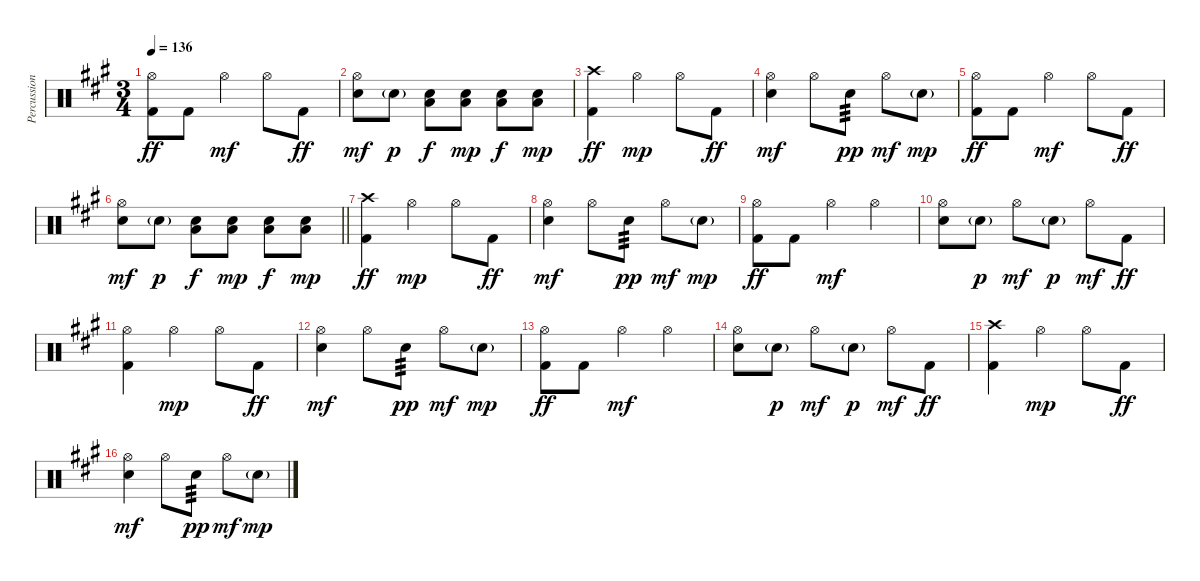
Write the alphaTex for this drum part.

\track ("Percussion" "Percussion") {solo instrument percussion}
\staff {score}
\articulation defaults
\ts (3 4)
\tempo 136
\clef neutral
\ks a
("Hi-Hat (open)" "Kick (hit) 2").8{dy ff} "Kick (hit) 2".8 "Hi-Hat (open)".4{dy mf} "Hi-Hat (open)".8 "Kick (hit) 2".8{dy ff} |
("Hi-Hat (open)" "Snare (hit) 2").8{dy mf} "Snare (hit) 2"{g}.8{dy p} ("Low Tom (hit)" "Snare (hit) 2").8{dy f} ("Low Tom (hit)" "Snare (hit) 2").8{dy mp} ("Low Floor Tom (hit)" "Snare (hit) 2").8{dy f} ("Low Floor Tom (hit)" "Snare (hit) 2").8{dy mp} |
("Crash high (hit)" "Kick (hit) 2").4{dy ff} "Hi-Hat (open)".4{dy mp} "Hi-Hat (open)".8 "Kick (hit) 2".8{dy ff} |
("Hi-Hat (open)" "Snare (hit) 2").4{dy mf} "Hi-Hat (open)".8 "Snare (hit) 2".8{tp 3 dy pp} "Hi-Hat (open)".8{dy mf} "Snare (hit) 2"{g}.8{dy mp} |
("Hi-Hat (open)" "Kick (hit) 2").8{dy ff} "Kick (hit) 2".8 "Hi-Hat (open)".4{dy mf} "Hi-Hat (open)".8 "Kick (hit) 2".8{dy ff} |
\barLineRight lightlight
("Hi-Hat (open)" "Snare (hit) 2").8{dy mf} "Snare (hit) 2"{g}.8{dy p} ("Low Tom (hit)" "Snare (hit) 2").8{dy f} ("Low Tom (hit)" "Snare (hit) 2").8{dy mp} ("Low Floor Tom (hit)" "Snare (hit) 2").8{dy f} ("Low Floor Tom (hit)" "Snare (hit) 2").8{dy mp} |
("Crash high (hit)" "Kick (hit) 2").4{dy ff} "Hi-Hat (open)".4{dy mp} "Hi-Hat (open)".8 "Kick (hit) 2".8{dy ff} |
("Hi-Hat (open)" "Snare (hit) 2").4{dy mf} "Hi-Hat (open)".8 "Snare (hit) 2".8{tp 3 dy pp} "Hi-Hat (open)".8{dy mf} "Snare (hit) 2"{g}.8{dy mp} |
("Hi-Hat (open)" "Kick (hit) 2").8{dy ff} "Kick (hit) 2".8 "Hi-Hat (open)".4{dy mf} "Hi-Hat (open)".4 |
("Hi-Hat (open)" "Snare (hit) 2").8 "Snare (hit) 2"{g}.8{dy p} "Hi-Hat (open)".8{dy mf} "Snare (hit) 2"{g}.8{dy p} "Hi-Hat (open)".8{dy mf} "Kick (hit) 2".8{dy ff} |
("Hi-Hat (open)" "Kick (hit) 2").4 "Hi-Hat (open)".4{dy mp} "Hi-Hat (open)".8 "Kick (hit) 2".8{dy ff} |
("Hi-Hat (open)" "Snare (hit) 2").4{dy mf} "Hi-Hat (open)".8 "Snare (hit) 2".8{tp 3 dy pp} "Hi-Hat (open)".8{dy mf} "Snare (hit) 2"{g}.8{dy mp} |
("Hi-Hat (open)" "Kick (hit) 2").8{dy ff} "Kick (hit) 2".8 "Hi-Hat (open)".4{dy mf} "Hi-Hat (open)".4 |
("Hi-Hat (open)" "Snare (hit) 2").8 "Snare (hit) 2"{g}.8{dy p} "Hi-Hat (open)".8{dy mf} "Snare (hit) 2"{g}.8{dy p} "Hi-Hat (open)".8{dy mf} "Kick (hit) 2".8{dy ff} |
("Crash high (hit)" "Kick (hit) 2").4 "Hi-Hat (open)".4{dy mp} "Hi-Hat (open)".8 "Kick (hit) 2".8{dy ff} |
("Hi-Hat (open)" "Snare (hit) 2").4{dy mf} "Hi-Hat (open)".8 "Snare (hit) 2".8{tp 3 dy pp} "Hi-Hat (open)".8{dy mf} "Snare (hit) 2"{g}.8{dy mp}
